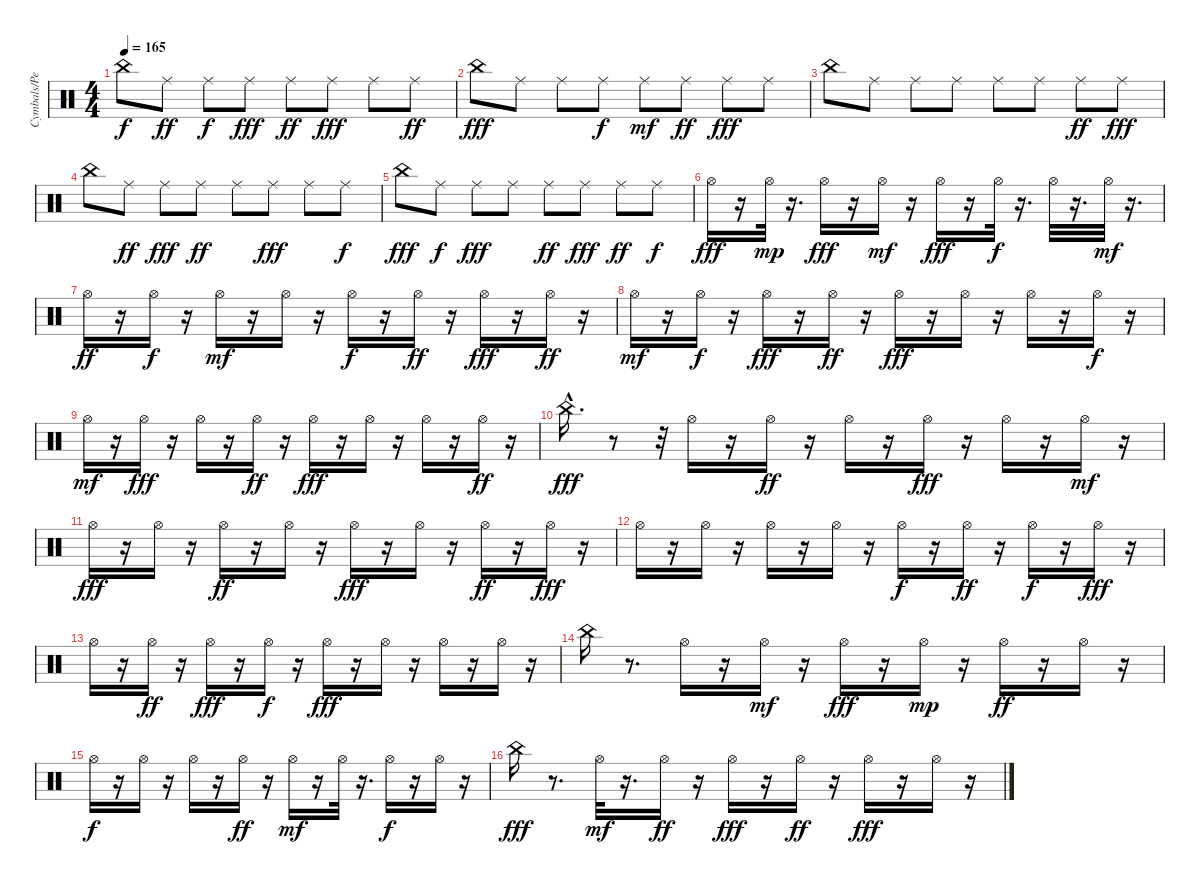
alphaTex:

\track ("Cymbals/Percussion" "Cymbals/Pe") {instrument percussion}
\staff {score}
\articulation defaults
\ts (4 4)
\tempo 165
\clef neutral
\ks c "China (hit)".8{dy f} "Ride (middle)".8{dy ff} "Ride (middle)".8{dy f} "Ride (middle)".8{dy fff} "Ride (middle)".8{dy ff} "Ride (middle)".8{dy fff} "Ride (middle)".8 "Ride (middle)".8{dy ff}
|
"China (hit)".8{dy fff} "Ride (middle)".8 "Ride (middle)".8 "Ride (middle)".8{dy f} "Ride (middle)".8{dy mf} "Ride (middle)".8{dy ff} "Ride (middle)".8{dy fff} "Ride (middle)".8 |
"China (hit)".8 "Ride (middle)".8 "Ride (middle)".8 "Ride (middle)".8 "Ride (middle)".8 "Ride (middle)".8 "Ride (middle)".8{dy ff} "Ride (middle)".8{dy fff} |
"China (hit)".8 "Ride (middle)".8{dy ff} "Ride (middle)".8{dy fff} "Ride (middle)".8{dy ff} "Ride (middle)".8 "Ride (middle)".8{dy fff} "Ride (middle)".8 "Ride (middle)".8{dy f} |
"China (hit)".8{dy fff} "Ride (middle)".8{dy f} "Ride (middle)".8{dy fff} "Ride (middle)".8 "Ride (middle)".8{dy ff} "Ride (middle)".8{dy fff} "Ride (middle)".8{dy ff} "Ride (middle)".8{dy f} |
"Hi-Hat (open)".16{dy fff} r.16 "Hi-Hat (open)".32{dy mp} r.16{d} "Hi-Hat (open)".16{dy fff} r.16 "Hi-Hat (open)".16{dy mf} r.16 "Hi-Hat (open)".16{dy fff} r.16 "Hi-Hat (open)".32{dy f} r.16{d} "Hi-Hat (open)".32 r.16{d} "Hi-Hat (open)".32{dy mf} r.16{d} |
"Hi-Hat (open)".16{dy ff} r.16 "Hi-Hat (open)".16{dy f} r.16 "Hi-Hat (open)".16{dy mf} r.16 "Hi-Hat (open)".16 r.16 "Hi-Hat (open)".16{dy f} r.16 "Hi-Hat (open)".16{dy ff} r.16 "Hi-Hat (open)".16{dy fff} r.16 "Hi-Hat (open)".16{dy ff} r.16 |
"Hi-Hat (open)".16{dy mf} r.16 "Hi-Hat (open)".16{dy f} r.16 "Hi-Hat (open)".16{dy fff} r.16 "Hi-Hat (open)".16{dy ff} r.16 "Hi-Hat (open)".16{dy fff} r.16 "Hi-Hat (open)".16 r.16 "Hi-Hat (open)".16 r.16 "Hi-Hat (open)".16{dy f} r.16 |
"Hi-Hat (open)".16{dy mf} r.16 "Hi-Hat (open)".16{dy fff} r.16 "Hi-Hat (open)".16 r.16 "Hi-Hat (open)".16{dy ff} r.16 "Hi-Hat (open)".16{dy fff} r.16 "Hi-Hat (open)".16 r.16 "Hi-Hat (open)".16 r.16 "Hi-Hat (open)".16{dy ff} r.16 |
"China (hit)"{hac}.16{d dy fff} r.8 r.32 "Hi-Hat (open)".16 r.16 "Hi-Hat (open)".16{dy ff} r.16 "Hi-Hat (open)".16 r.16 "Hi-Hat (open)".16{dy fff} r.16 "Hi-Hat (open)".16 r.16 "Hi-Hat (open)".16{dy mf} r.16 |
"Hi-Hat (open)".16{dy fff} r.16 "Hi-Hat (open)".16 r.16 "Hi-Hat (open)".16{dy ff} r.16 "Hi-Hat (open)".16 r.16 "Hi-Hat (open)".16{dy fff} r.16 "Hi-Hat (open)".16 r.16 "Hi-Hat (open)".16{dy ff} r.16 "Hi-Hat (open)".16{dy fff} r.16 |
"Hi-Hat (open)".16 r.16 "Hi-Hat (open)".16 r.16 "Hi-Hat (open)".16 r.16 "Hi-Hat (open)".16 r.16 "Hi-Hat (open)".16{dy f} r.16 "Hi-Hat (open)".16{dy ff} r.16 "Hi-Hat (open)".16{dy f} r.16 "Hi-Hat (open)".16{dy fff} r.16 |
"Hi-Hat (open)".16 r.16 "Hi-Hat (open)".16{dy ff} r.16 "Hi-Hat (open)".16{dy fff} r.16 "Hi-Hat (open)".16{dy f} r.16 "Hi-Hat (open)".16{dy fff} r.16 "Hi-Hat (open)".16 r.16 "Hi-Hat (open)".16 r.16 "Hi-Hat (open)".16 r.16 |
"China (hit)".16 r.8{d} "Hi-Hat (open)".16 r.16 "Hi-Hat (open)".16{dy mf} r.16 "Hi-Hat (open)".16{dy fff} r.16 "Hi-Hat (open)".16{dy mp} r.16 "Hi-Hat (open)".16{dy ff} r.16 "Hi-Hat (open)".16 r.16 |
"Hi-Hat (open)".16{dy f} r.16 "Hi-Hat (open)".16 r.16 "Hi-Hat (open)".16 r.16 "Hi-Hat (open)".16{dy ff} r.16 "Hi-Hat (open)".16{dy mf} r.16 "Hi-Hat (open)".32 r.16{d} "Hi-Hat (open)".16{dy f} r.16 "Hi-Hat (open)".16 r.16 |
"China (hit)".16{dy fff} r.8{d} "Hi-Hat (open)".32{dy mf} r.16{d} "Hi-Hat (open)".16{dy ff} r.16 "Hi-Hat (open)".16{dy fff} r.16 "Hi-Hat (open)".16{dy ff} r.16 "Hi-Hat (open)".16{dy fff} r.16 "Hi-Hat (open)".16 r.16
